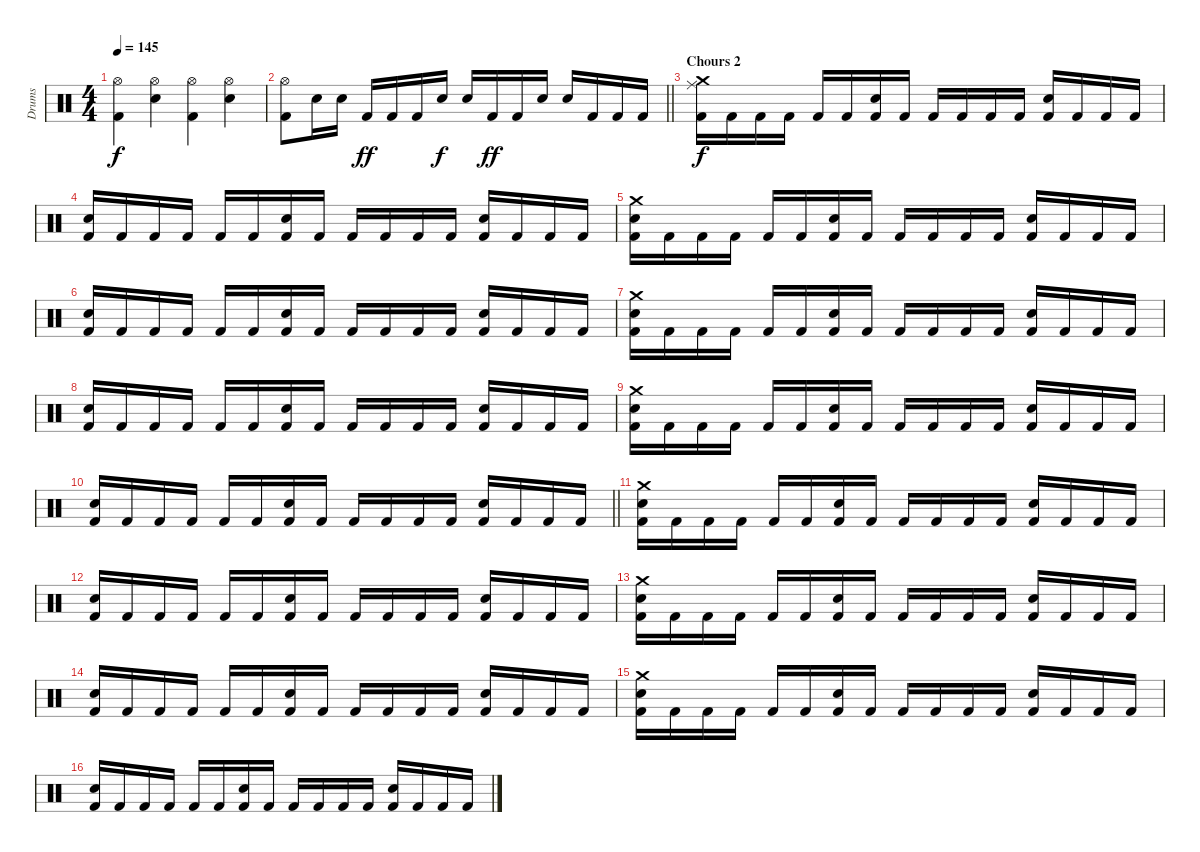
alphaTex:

\track ("Drums" "Drums") {instrument percussion}
\staff {score}
\articulation defaults
\ts (4 4)
\tempo 145
\clef neutral
\ks c
("Hi-Hat (open)" "Kick (hit) 2").4{dy f} ("Hi-Hat (open)" "Electric Snare (hit)").4 ("Hi-Hat (open)" "Kick (hit) 2").4 ("Hi-Hat (open)" "Electric Snare (hit)").4 |
\barLineRight lightlight
("Hi-Hat (open)" "Kick (hit) 2").8 "Electric Snare (hit)".16 "Electric Snare (hit)".16 "Kick (hit) 2".16{dy ff} "Kick (hit) 2".16 "Kick (hit) 2".16 "Electric Snare (hit)".16{dy f} "Electric Snare (hit)".16 "Kick (hit) 2".16{dy ff} "Kick (hit) 2".16 "Electric Snare (hit)".16 "Electric Snare (hit)".16 "Kick (hit) 2".16 "Kick (hit) 2".16 "Kick (hit) 2".16 |
\section ("" "Chours 2")
("Crash medium (hit)" "Ride (middle)" "Kick (hit) 2").16{dy f} "Kick (hit) 2".16 "Kick (hit) 2".16 "Kick (hit) 2".16 "Kick (hit) 2".16 "Kick (hit) 2".16 ("Electric Snare (hit)" "Kick (hit) 2").16 "Kick (hit) 2".16 "Kick (hit) 2".16 "Kick (hit) 2".16 "Kick (hit) 2".16 "Kick (hit) 2".16 ("Electric Snare (hit)" "Kick (hit) 2").16 "Kick (hit) 2".16 "Kick (hit) 2".16 "Kick (hit) 2".16 |
("Electric Snare (hit)" "Kick (hit) 2").16 "Kick (hit) 2".16 "Kick (hit) 2".16 "Kick (hit) 2".16 "Kick (hit) 2".16 "Kick (hit) 2".16 ("Electric Snare (hit)" "Kick (hit) 2").16 "Kick (hit) 2".16 "Kick (hit) 2".16 "Kick (hit) 2".16 "Kick (hit) 2".16 "Kick (hit) 2".16 ("Electric Snare (hit)" "Kick (hit) 2").16 "Kick (hit) 2".16 "Kick (hit) 2".16 "Kick (hit) 2".16 |
("Crash medium (hit)" "Electric Snare (hit)" "Kick (hit) 2").16 "Kick (hit) 2".16 "Kick (hit) 2".16 "Kick (hit) 2".16 "Kick (hit) 2".16 "Kick (hit) 2".16 ("Electric Snare (hit)" "Kick (hit) 2").16 "Kick (hit) 2".16 "Kick (hit) 2".16 "Kick (hit) 2".16 "Kick (hit) 2".16 "Kick (hit) 2".16 ("Electric Snare (hit)" "Kick (hit) 2").16 "Kick (hit) 2".16 "Kick (hit) 2".16 "Kick (hit) 2".16 |
("Electric Snare (hit)" "Kick (hit) 2").16 "Kick (hit) 2".16 "Kick (hit) 2".16 "Kick (hit) 2".16 "Kick (hit) 2".16 "Kick (hit) 2".16 ("Electric Snare (hit)" "Kick (hit) 2").16 "Kick (hit) 2".16 "Kick (hit) 2".16 "Kick (hit) 2".16 "Kick (hit) 2".16 "Kick (hit) 2".16 ("Electric Snare (hit)" "Kick (hit) 2").16 "Kick (hit) 2".16 "Kick (hit) 2".16 "Kick (hit) 2".16 |
("Crash medium (hit)" "Electric Snare (hit)" "Kick (hit) 2").16 "Kick (hit) 2".16 "Kick (hit) 2".16 "Kick (hit) 2".16 "Kick (hit) 2".16 "Kick (hit) 2".16 ("Electric Snare (hit)" "Kick (hit) 2").16 "Kick (hit) 2".16 "Kick (hit) 2".16 "Kick (hit) 2".16 "Kick (hit) 2".16 "Kick (hit) 2".16 ("Electric Snare (hit)" "Kick (hit) 2").16 "Kick (hit) 2".16 "Kick (hit) 2".16 "Kick (hit) 2".16 |
("Electric Snare (hit)" "Kick (hit) 2").16 "Kick (hit) 2".16 "Kick (hit) 2".16 "Kick (hit) 2".16 "Kick (hit) 2".16 "Kick (hit) 2".16 ("Electric Snare (hit)" "Kick (hit) 2").16 "Kick (hit) 2".16 "Kick (hit) 2".16 "Kick (hit) 2".16 "Kick (hit) 2".16 "Kick (hit) 2".16 ("Electric Snare (hit)" "Kick (hit) 2").16 "Kick (hit) 2".16 "Kick (hit) 2".16 "Kick (hit) 2".16 |
("Crash medium (hit)" "Electric Snare (hit)" "Kick (hit) 2").16 "Kick (hit) 2".16 "Kick (hit) 2".16 "Kick (hit) 2".16 "Kick (hit) 2".16 "Kick (hit) 2".16 ("Electric Snare (hit)" "Kick (hit) 2").16 "Kick (hit) 2".16 "Kick (hit) 2".16 "Kick (hit) 2".16 "Kick (hit) 2".16 "Kick (hit) 2".16 ("Electric Snare (hit)" "Kick (hit) 2").16 "Kick (hit) 2".16 "Kick (hit) 2".16 "Kick (hit) 2".16 |
\barLineRight lightlight
("Electric Snare (hit)" "Kick (hit) 2").16 "Kick (hit) 2".16 "Kick (hit) 2".16 "Kick (hit) 2".16 "Kick (hit) 2".16 "Kick (hit) 2".16 ("Electric Snare (hit)" "Kick (hit) 2").16 "Kick (hit) 2".16 "Kick (hit) 2".16 "Kick (hit) 2".16 "Kick (hit) 2".16 "Kick (hit) 2".16 ("Electric Snare (hit)" "Kick (hit) 2").16 "Kick (hit) 2".16 "Kick (hit) 2".16 "Kick (hit) 2".16 |
("Crash medium (hit)" "Electric Snare (hit)" "Kick (hit) 2").16 "Kick (hit) 2".16 "Kick (hit) 2".16 "Kick (hit) 2".16 "Kick (hit) 2".16 "Kick (hit) 2".16 ("Electric Snare (hit)" "Kick (hit) 2").16 "Kick (hit) 2".16 "Kick (hit) 2".16 "Kick (hit) 2".16 "Kick (hit) 2".16 "Kick (hit) 2".16 ("Electric Snare (hit)" "Kick (hit) 2").16 "Kick (hit) 2".16 "Kick (hit) 2".16 "Kick (hit) 2".16 |
("Electric Snare (hit)" "Kick (hit) 2").16 "Kick (hit) 2".16 "Kick (hit) 2".16 "Kick (hit) 2".16 "Kick (hit) 2".16 "Kick (hit) 2".16 ("Electric Snare (hit)" "Kick (hit) 2").16 "Kick (hit) 2".16 "Kick (hit) 2".16 "Kick (hit) 2".16 "Kick (hit) 2".16 "Kick (hit) 2".16 ("Electric Snare (hit)" "Kick (hit) 2").16 "Kick (hit) 2".16 "Kick (hit) 2".16 "Kick (hit) 2".16 |
("Crash medium (hit)" "Electric Snare (hit)" "Kick (hit) 2").16 "Kick (hit) 2".16 "Kick (hit) 2".16 "Kick (hit) 2".16 "Kick (hit) 2".16 "Kick (hit) 2".16 ("Electric Snare (hit)" "Kick (hit) 2").16 "Kick (hit) 2".16 "Kick (hit) 2".16 "Kick (hit) 2".16 "Kick (hit) 2".16 "Kick (hit) 2".16 ("Electric Snare (hit)" "Kick (hit) 2").16 "Kick (hit) 2".16 "Kick (hit) 2".16 "Kick (hit) 2".16 |
("Electric Snare (hit)" "Kick (hit) 2").16 "Kick (hit) 2".16 "Kick (hit) 2".16 "Kick (hit) 2".16 "Kick (hit) 2".16 "Kick (hit) 2".16 ("Electric Snare (hit)" "Kick (hit) 2").16 "Kick (hit) 2".16 "Kick (hit) 2".16 "Kick (hit) 2".16 "Kick (hit) 2".16 "Kick (hit) 2".16 ("Electric Snare (hit)" "Kick (hit) 2").16 "Kick (hit) 2".16 "Kick (hit) 2".16 "Kick (hit) 2".16 |
("Crash medium (hit)" "Electric Snare (hit)" "Kick (hit) 2").16 "Kick (hit) 2".16 "Kick (hit) 2".16 "Kick (hit) 2".16 "Kick (hit) 2".16 "Kick (hit) 2".16 ("Electric Snare (hit)" "Kick (hit) 2").16 "Kick (hit) 2".16 "Kick (hit) 2".16 "Kick (hit) 2".16 "Kick (hit) 2".16 "Kick (hit) 2".16 ("Electric Snare (hit)" "Kick (hit) 2").16 "Kick (hit) 2".16 "Kick (hit) 2".16 "Kick (hit) 2".16 |
("Electric Snare (hit)" "Kick (hit) 2").16 "Kick (hit) 2".16 "Kick (hit) 2".16 "Kick (hit) 2".16 "Kick (hit) 2".16 "Kick (hit) 2".16 ("Electric Snare (hit)" "Kick (hit) 2").16 "Kick (hit) 2".16 "Kick (hit) 2".16 "Kick (hit) 2".16 "Kick (hit) 2".16 "Kick (hit) 2".16 ("Electric Snare (hit)" "Kick (hit) 2").16 "Kick (hit) 2".16 "Kick (hit) 2".16 "Kick (hit) 2".16
